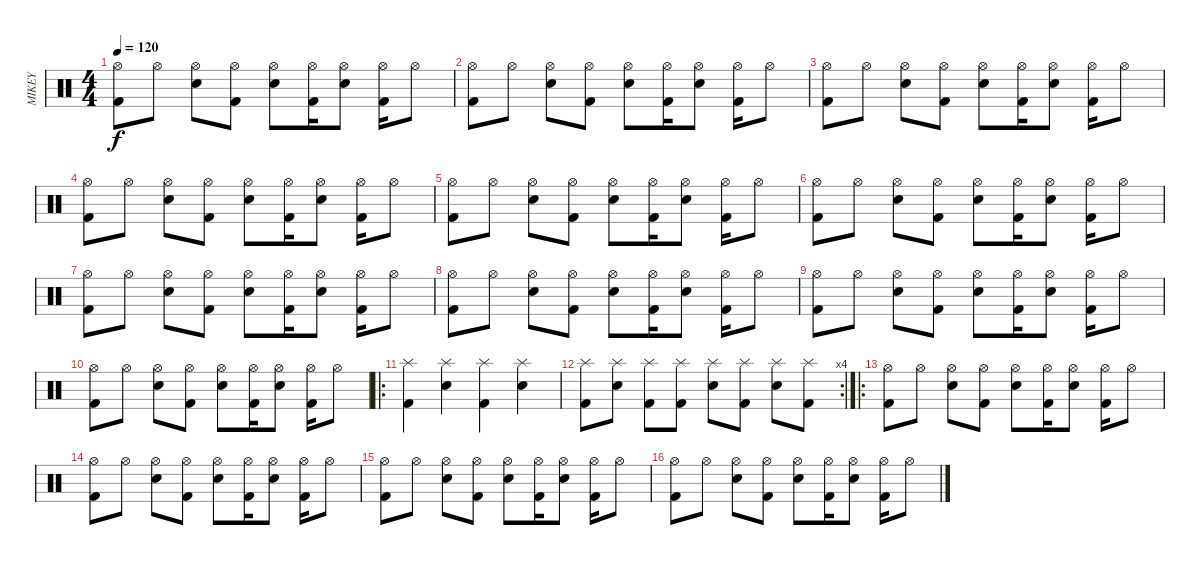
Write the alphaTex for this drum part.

\track ("MIKEY" "MIKEY") {instrument percussion}
\staff {score}
\articulation defaults
\ts (4 4)
\tempo 120
\clef neutral
\ks c
("Kick (hit) 2" "Hi-Hat (open)").8{dy f} "Hi-Hat (open)".8 ("Snare (hit) 2" "Hi-Hat (open)").8 ("Kick (hit) 2" "Hi-Hat (open)").8 ("Snare (hit) 2" "Hi-Hat (open)").8 ("Kick (hit) 2" "Hi-Hat (open)").16 ("Snare (hit) 2" "Hi-Hat (open)").8 ("Kick (hit) 2" "Hi-Hat (open)").16 "Hi-Hat (open)".8 |
("Kick (hit) 2" "Hi-Hat (open)").8 "Hi-Hat (open)".8 ("Snare (hit) 2" "Hi-Hat (open)").8 ("Kick (hit) 2" "Hi-Hat (open)").8 ("Snare (hit) 2" "Hi-Hat (open)").8 ("Kick (hit) 2" "Hi-Hat (open)").16 ("Snare (hit) 2" "Hi-Hat (open)").8 ("Kick (hit) 2" "Hi-Hat (open)").16 "Hi-Hat (open)".8 |
("Kick (hit) 2" "Hi-Hat (open)").8 "Hi-Hat (open)".8 ("Snare (hit) 2" "Hi-Hat (open)").8 ("Kick (hit) 2" "Hi-Hat (open)").8 ("Snare (hit) 2" "Hi-Hat (open)").8 ("Kick (hit) 2" "Hi-Hat (open)").16 ("Snare (hit) 2" "Hi-Hat (open)").8 ("Kick (hit) 2" "Hi-Hat (open)").16 "Hi-Hat (open)".8 |
("Kick (hit) 2" "Hi-Hat (open)").8 "Hi-Hat (open)".8 ("Snare (hit) 2" "Hi-Hat (open)").8 ("Kick (hit) 2" "Hi-Hat (open)").8 ("Snare (hit) 2" "Hi-Hat (open)").8 ("Kick (hit) 2" "Hi-Hat (open)").16 ("Snare (hit) 2" "Hi-Hat (open)").8 ("Kick (hit) 2" "Hi-Hat (open)").16 "Hi-Hat (open)".8 |
("Kick (hit) 2" "Hi-Hat (open)").8 "Hi-Hat (open)".8 ("Snare (hit) 2" "Hi-Hat (open)").8 ("Kick (hit) 2" "Hi-Hat (open)").8 ("Snare (hit) 2" "Hi-Hat (open)").8 ("Kick (hit) 2" "Hi-Hat (open)").16 ("Snare (hit) 2" "Hi-Hat (open)").8 ("Kick (hit) 2" "Hi-Hat (open)").16 "Hi-Hat (open)".8 |
("Kick (hit) 2" "Hi-Hat (open)").8 "Hi-Hat (open)".8 ("Snare (hit) 2" "Hi-Hat (open)").8 ("Kick (hit) 2" "Hi-Hat (open)").8 ("Snare (hit) 2" "Hi-Hat (open)").8 ("Kick (hit) 2" "Hi-Hat (open)").16 ("Snare (hit) 2" "Hi-Hat (open)").8 ("Kick (hit) 2" "Hi-Hat (open)").16 "Hi-Hat (open)".8 |
("Kick (hit) 2" "Hi-Hat (open)").8 "Hi-Hat (open)".8 ("Snare (hit) 2" "Hi-Hat (open)").8 ("Kick (hit) 2" "Hi-Hat (open)").8 ("Snare (hit) 2" "Hi-Hat (open)").8 ("Kick (hit) 2" "Hi-Hat (open)").16 ("Snare (hit) 2" "Hi-Hat (open)").8 ("Kick (hit) 2" "Hi-Hat (open)").16 "Hi-Hat (open)".8 |
("Kick (hit) 2" "Hi-Hat (open)").8 "Hi-Hat (open)".8 ("Snare (hit) 2" "Hi-Hat (open)").8 ("Kick (hit) 2" "Hi-Hat (open)").8 ("Snare (hit) 2" "Hi-Hat (open)").8 ("Kick (hit) 2" "Hi-Hat (open)").16 ("Snare (hit) 2" "Hi-Hat (open)").8 ("Kick (hit) 2" "Hi-Hat (open)").16 "Hi-Hat (open)".8 |
("Kick (hit) 2" "Hi-Hat (open)").8 "Hi-Hat (open)".8 ("Snare (hit) 2" "Hi-Hat (open)").8 ("Kick (hit) 2" "Hi-Hat (open)").8 ("Snare (hit) 2" "Hi-Hat (open)").8 ("Kick (hit) 2" "Hi-Hat (open)").16 ("Snare (hit) 2" "Hi-Hat (open)").8 ("Kick (hit) 2" "Hi-Hat (open)").16 "Hi-Hat (open)".8 |
("Kick (hit) 2" "Hi-Hat (open)").8 "Hi-Hat (open)".8 ("Snare (hit) 2" "Hi-Hat (open)").8 ("Kick (hit) 2" "Hi-Hat (open)").8 ("Snare (hit) 2" "Hi-Hat (open)").8 ("Kick (hit) 2" "Hi-Hat (open)").16 ("Snare (hit) 2" "Hi-Hat (open)").8 ("Kick (hit) 2" "Hi-Hat (open)").16 "Hi-Hat (open)".8 |
\ro
("Splash (hit)" "Kick (hit) 2").4 ("Splash (hit)" "Snare (hit) 2").4 ("Splash (hit)" "Kick (hit) 2").4 ("Splash (hit)" "Snare (hit) 2").4 |
\rc 4
("Splash (hit)" "Kick (hit) 2").8 ("Splash (hit)" "Snare (hit) 2").8 ("Splash (hit)" "Kick (hit) 2").8 ("Splash (hit)" "Kick (hit) 2").8 ("Splash (hit)" "Snare (hit) 2").8 ("Splash (hit)" "Kick (hit) 2").8 ("Splash (hit)" "Snare (hit) 2").8 ("Splash (hit)" "Kick (hit) 2").8 |
\ro
("Kick (hit) 2" "Hi-Hat (open)").8 "Hi-Hat (open)".8 ("Snare (hit) 2" "Hi-Hat (open)").8 ("Kick (hit) 2" "Hi-Hat (open)").8 ("Snare (hit) 2" "Hi-Hat (open)").8 ("Kick (hit) 2" "Hi-Hat (open)").16 ("Snare (hit) 2" "Hi-Hat (open)").8 ("Kick (hit) 2" "Hi-Hat (open)").16 "Hi-Hat (open)".8 |
("Kick (hit) 2" "Hi-Hat (open)").8 "Hi-Hat (open)".8 ("Snare (hit) 2" "Hi-Hat (open)").8 ("Kick (hit) 2" "Hi-Hat (open)").8 ("Snare (hit) 2" "Hi-Hat (open)").8 ("Kick (hit) 2" "Hi-Hat (open)").16 ("Snare (hit) 2" "Hi-Hat (open)").8 ("Kick (hit) 2" "Hi-Hat (open)").16 "Hi-Hat (open)".8 |
("Kick (hit) 2" "Hi-Hat (open)").8 "Hi-Hat (open)".8 ("Snare (hit) 2" "Hi-Hat (open)").8 ("Kick (hit) 2" "Hi-Hat (open)").8 ("Snare (hit) 2" "Hi-Hat (open)").8 ("Kick (hit) 2" "Hi-Hat (open)").16 ("Snare (hit) 2" "Hi-Hat (open)").8 ("Kick (hit) 2" "Hi-Hat (open)").16 "Hi-Hat (open)".8 |
("Kick (hit) 2" "Hi-Hat (open)").8 "Hi-Hat (open)".8 ("Snare (hit) 2" "Hi-Hat (open)").8 ("Kick (hit) 2" "Hi-Hat (open)").8 ("Snare (hit) 2" "Hi-Hat (open)").8 ("Kick (hit) 2" "Hi-Hat (open)").16 ("Snare (hit) 2" "Hi-Hat (open)").8 ("Kick (hit) 2" "Hi-Hat (open)").16 "Hi-Hat (open)".8
